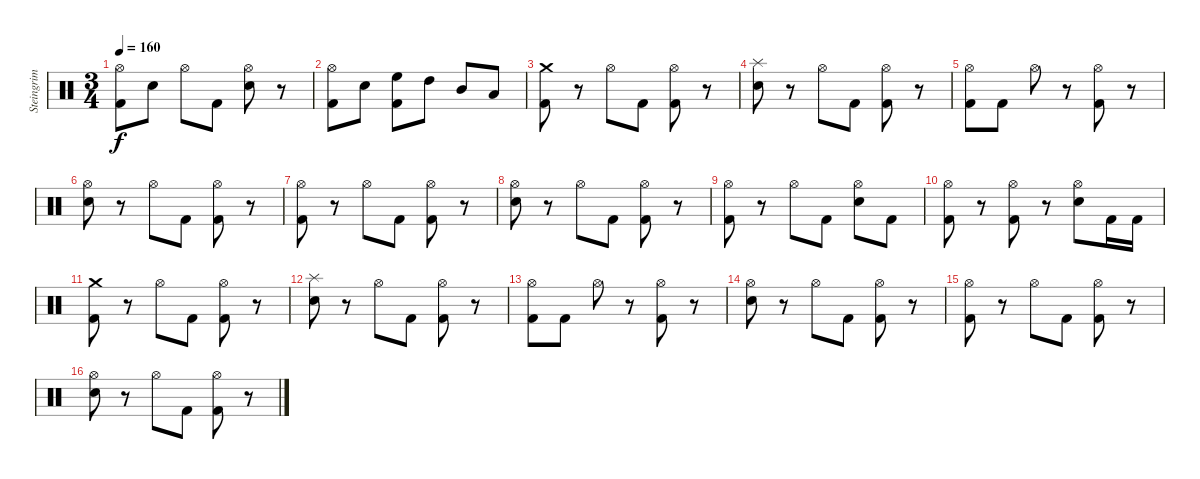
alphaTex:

\track ("Steingrim Trommur" "Steingrim ") {instrument percussion}
\staff {score}
\articulation defaults
\ts (3 4)
\tempo 160
\clef neutral
\ks c
("Hi-Hat (open)" "Kick (hit) 2").8{dy f} "Electric Snare (hit)".8 "Hi-Hat (open)".8 "Kick (hit) 2".8 ("Hi-Hat (open)" "Electric Snare (hit)").8 r.8 |
("Hi-Hat (open)" "Kick (hit) 2").8 "Electric Snare (hit)".8 ("High Floor Tom (hit)" "Kick (hit) 2").8 "High Tom (hit)".8 "Mid Tom (hit)".8 "Low Tom (hit)".8 |
("Crash medium (hit)" "Kick (hit) 2").8 r.8 "Hi-Hat (open)".8 "Kick (hit) 2".8 ("Hi-Hat (open)" "Kick (hit) 2").8 r.8 |
("Splash (hit)" "Electric Snare (hit)").8 r.8 "Hi-Hat (open)".8 "Kick (hit) 2".8 ("Hi-Hat (open)" "Kick (hit) 2").8 r.8 |
("Hi-Hat (open)" "Kick (hit) 2").8 "Kick (hit) 2".8 "Hi-Hat (open)".8 r.8 ("Hi-Hat (open)" "Kick (hit) 2").8 r.8 |
("Hi-Hat (open)" "Electric Snare (hit)").8 r.8 "Hi-Hat (open)".8 "Kick (hit) 2".8 ("Hi-Hat (open)" "Kick (hit) 2").8 r.8 |
("Hi-Hat (open)" "Kick (hit) 2").8 r.8 "Hi-Hat (open)".8 "Kick (hit) 2".8 ("Hi-Hat (open)" "Kick (hit) 2").8 r.8 |
("Hi-Hat (open)" "Electric Snare (hit)").8 r.8 "Hi-Hat (open)".8 "Kick (hit) 2".8 ("Hi-Hat (open)" "Kick (hit) 2").8 r.8 |
("Hi-Hat (open)" "Kick (hit) 2").8 r.8 "Hi-Hat (open)".8 "Kick (hit) 2".8 ("Hi-Hat (open)" "Electric Snare (hit)").8 "Kick (hit) 2".8 |
("Hi-Hat (open)" "Kick (hit) 2").8 r.8 ("Hi-Hat (open)" "Kick (hit) 2").8 r.8 ("Hi-Hat (open)" "Electric Snare (hit)").8 "Kick (hit) 2".16 "Kick (hit) 2".16 |
("Crash medium (hit)" "Kick (hit) 2").8 r.8 "Hi-Hat (open)".8 "Kick (hit) 2".8 ("Hi-Hat (open)" "Kick (hit) 2").8 r.8 |
("Splash (hit)" "Electric Snare (hit)").8 r.8 "Hi-Hat (open)".8 "Kick (hit) 2".8 ("Hi-Hat (open)" "Kick (hit) 2").8 r.8 |
("Hi-Hat (open)" "Kick (hit) 2").8 "Kick (hit) 2".8 "Hi-Hat (open)".8 r.8 ("Hi-Hat (open)" "Kick (hit) 2").8 r.8 |
("Hi-Hat (open)" "Electric Snare (hit)").8 r.8 "Hi-Hat (open)".8 "Kick (hit) 2".8 ("Hi-Hat (open)" "Kick (hit) 2").8 r.8 |
("Hi-Hat (open)" "Kick (hit) 2").8 r.8 "Hi-Hat (open)".8 "Kick (hit) 2".8 ("Hi-Hat (open)" "Kick (hit) 2").8 r.8 |
("Hi-Hat (open)" "Electric Snare (hit)").8 r.8 "Hi-Hat (open)".8 "Kick (hit) 2".8 ("Hi-Hat (open)" "Kick (hit) 2").8 r.8
